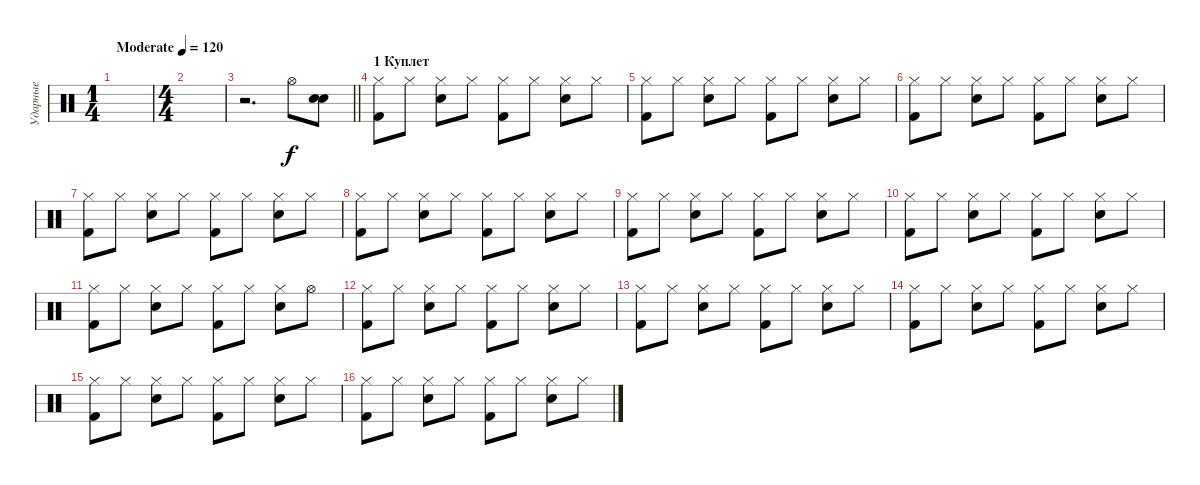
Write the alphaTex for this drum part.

\track ("Ударные" "Ударные") {instrument percussion}
\staff {score}
\articulation defaults
\ts (1 4)
\tempo (120 "Moderate")
\clef neutral
\ks c
|
\ts (4 4)
|
\barLineRight lightlight
r.2{d} "Hi-Hat (open)".8 ("Snare (hit) 2" "Snare (hit) 2").8{bd 240} |
\section ("" "1 Куплет")
("Hi-Hat (closed)" "Kick (hit) 2").8 "Hi-Hat (closed)".8 ("Hi-Hat (closed)" "Snare (hit) 2").8 "Hi-Hat (closed)".8 ("Hi-Hat (closed)" "Kick (hit) 2").8 "Hi-Hat (closed)".8 ("Hi-Hat (closed)" "Snare (hit) 2").8 "Hi-Hat (closed)".8 |
("Hi-Hat (closed)" "Kick (hit) 2").8 "Hi-Hat (closed)".8 ("Hi-Hat (closed)" "Snare (hit) 2").8 "Hi-Hat (closed)".8 ("Hi-Hat (closed)" "Kick (hit) 2").8 "Hi-Hat (closed)".8 ("Hi-Hat (closed)" "Snare (hit) 2").8 "Hi-Hat (closed)".8 |
("Hi-Hat (closed)" "Kick (hit) 2").8 "Hi-Hat (closed)".8 ("Hi-Hat (closed)" "Snare (hit) 2").8 "Hi-Hat (closed)".8 ("Hi-Hat (closed)" "Kick (hit) 2").8 "Hi-Hat (closed)".8 ("Hi-Hat (closed)" "Snare (hit) 2").8 "Hi-Hat (closed)".8 |
("Hi-Hat (closed)" "Kick (hit) 2").8 "Hi-Hat (closed)".8 ("Hi-Hat (closed)" "Snare (hit) 2").8 "Hi-Hat (closed)".8 ("Hi-Hat (closed)" "Kick (hit) 2").8 "Hi-Hat (closed)".8 ("Hi-Hat (closed)" "Snare (hit) 2").8 "Hi-Hat (closed)".8 |
("Hi-Hat (closed)" "Kick (hit) 2").8 "Hi-Hat (closed)".8 ("Hi-Hat (closed)" "Snare (hit) 2").8 "Hi-Hat (closed)".8 ("Hi-Hat (closed)" "Kick (hit) 2").8 "Hi-Hat (closed)".8 ("Hi-Hat (closed)" "Snare (hit) 2").8 "Hi-Hat (closed)".8 |
("Hi-Hat (closed)" "Kick (hit) 2").8 "Hi-Hat (closed)".8 ("Hi-Hat (closed)" "Snare (hit) 2").8 "Hi-Hat (closed)".8 ("Hi-Hat (closed)" "Kick (hit) 2").8 "Hi-Hat (closed)".8 ("Hi-Hat (closed)" "Snare (hit) 2").8 "Hi-Hat (closed)".8 |
("Hi-Hat (closed)" "Kick (hit) 2").8 "Hi-Hat (closed)".8 ("Hi-Hat (closed)" "Snare (hit) 2").8 "Hi-Hat (closed)".8 ("Hi-Hat (closed)" "Kick (hit) 2").8 "Hi-Hat (closed)".8 ("Hi-Hat (closed)" "Snare (hit) 2").8 "Hi-Hat (closed)".8 |
("Hi-Hat (closed)" "Kick (hit) 2").8 "Hi-Hat (closed)".8 ("Hi-Hat (closed)" "Snare (hit) 2").8 "Hi-Hat (closed)".8 ("Hi-Hat (closed)" "Kick (hit) 2").8 "Hi-Hat (closed)".8 ("Hi-Hat (closed)" "Snare (hit) 2").8 "Hi-Hat (open)".8 |
("Hi-Hat (closed)" "Kick (hit) 2").8 "Hi-Hat (closed)".8 ("Hi-Hat (closed)" "Snare (hit) 2").8 "Hi-Hat (closed)".8 ("Hi-Hat (closed)" "Kick (hit) 2").8 "Hi-Hat (closed)".8 ("Hi-Hat (closed)" "Snare (hit) 2").8 "Hi-Hat (closed)".8 |
("Hi-Hat (closed)" "Kick (hit) 2").8 "Hi-Hat (closed)".8 ("Hi-Hat (closed)" "Snare (hit) 2").8 "Hi-Hat (closed)".8 ("Hi-Hat (closed)" "Kick (hit) 2").8 "Hi-Hat (closed)".8 ("Hi-Hat (closed)" "Snare (hit) 2").8 "Hi-Hat (closed)".8 |
("Hi-Hat (closed)" "Kick (hit) 2").8 "Hi-Hat (closed)".8 ("Hi-Hat (closed)" "Snare (hit) 2").8 "Hi-Hat (closed)".8 ("Hi-Hat (closed)" "Kick (hit) 2").8 "Hi-Hat (closed)".8 ("Hi-Hat (closed)" "Snare (hit) 2").8 "Hi-Hat (closed)".8 |
("Hi-Hat (closed)" "Kick (hit) 2").8 "Hi-Hat (closed)".8 ("Hi-Hat (closed)" "Snare (hit) 2").8 "Hi-Hat (closed)".8 ("Hi-Hat (closed)" "Kick (hit) 2").8 "Hi-Hat (closed)".8 ("Hi-Hat (closed)" "Snare (hit) 2").8 "Hi-Hat (closed)".8 |
("Hi-Hat (closed)" "Kick (hit) 2").8 "Hi-Hat (closed)".8 ("Hi-Hat (closed)" "Snare (hit) 2").8 "Hi-Hat (closed)".8 ("Hi-Hat (closed)" "Kick (hit) 2").8 "Hi-Hat (closed)".8 ("Hi-Hat (closed)" "Snare (hit) 2").8 "Hi-Hat (closed)".8
